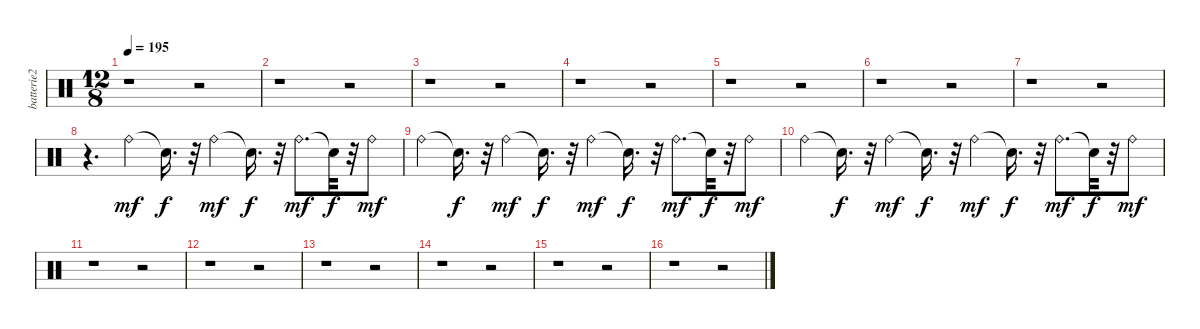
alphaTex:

\track ("batterie2" "batterie2") {instrument percussion}
\staff {score}
\articulation defaults
\ts (12 8)
\tempo 195
\clef neutral
\ks c
r.1{dy mf} r.2 |
r.1 r.2 |
r.1 r.2 |
r.1 r.2 |
r.1 r.2 |
r.1 r.2 |
r.1 r.2 |
r.4{d} "Ride (bell)".4 "Snare (hit)"{t}.16{d dy f} r.32 "Ride (bell)".4{dy mf} "Snare (hit)"{t}.16{d dy f} r.32 "Ride (bell)".8{d dy mf} "Snare (hit)"{t}.32{dy f} r.32 "Ride (bell)".8{dy mf} |
"Ride (bell)".4 "Snare (hit)"{t}.16{d dy f} r.32 "Ride (bell)".4{dy mf} "Snare (hit)"{t}.16{d dy f} r.32 "Ride (bell)".4{dy mf} "Snare (hit)"{t}.16{d dy f} r.32 "Ride (bell)".8{d dy mf} "Snare (hit)"{t}.32{dy f} r.32 "Ride (bell)".8{dy mf} |
"Ride (bell)".4 "Snare (hit)"{t}.16{d dy f} r.32 "Ride (bell)".4{dy mf} "Snare (hit)"{t}.16{d dy f} r.32 "Ride (bell)".4{dy mf} "Snare (hit)"{t}.16{d dy f} r.32 "Ride (bell)".8{d dy mf} "Snare (hit)"{t}.32{dy f} r.32 "Ride (bell)".8{dy mf} |
r.1 r.2 |
r.1 r.2 |
r.1 r.2 |
r.1 r.2 |
r.1 r.2 |
r.1 r.2
